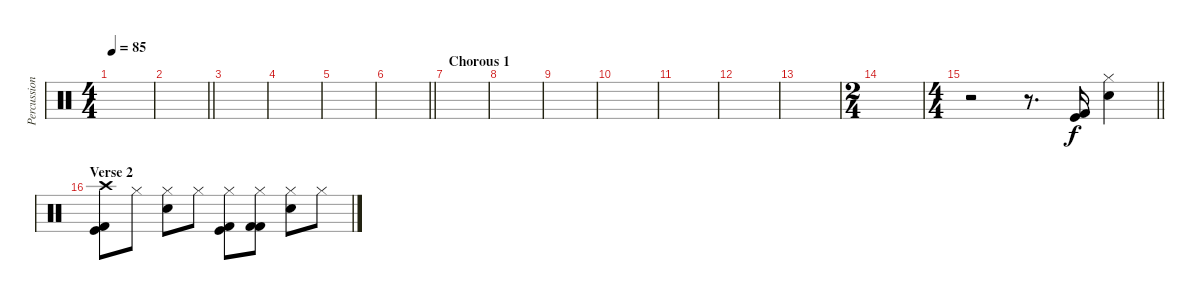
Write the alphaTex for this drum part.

\track ("Percussion" "Percussion") {instrument percussion}
\staff {score}
\articulation defaults
\ts (4 4)
\tempo 85
\clef neutral
\ks c
|
\barLineRight lightlight
|
\section ("" "")
|
|
|
\barLineRight lightlight
|
\section ("" "Chorous 1")
|
|
|
|
|
|
|
\ts (2 4)
|
\ts (4 4)
\barLineRight lightlight
r.2 r.8{d} ("Kick (hit)" "Kick (hit) 2").16 ("Hi-Hat (closed)" "Electric Snare (hit)").4 |
\section ("" "Verse 2")
("Crash high (hit)" "Kick (hit)" "Kick (hit) 2").8 "Hi-Hat (closed)".8 ("Hi-Hat (closed)" "Electric Snare (hit)").8 "Hi-Hat (closed)".8 ("Hi-Hat (closed)" "Kick (hit)" "Kick (hit) 2").8 ("Hi-Hat (closed)" "Kick (hit) 2" "Kick (hit) 2").8 ("Hi-Hat (closed)" "Electric Snare (hit)").8 "Hi-Hat (closed)".8
